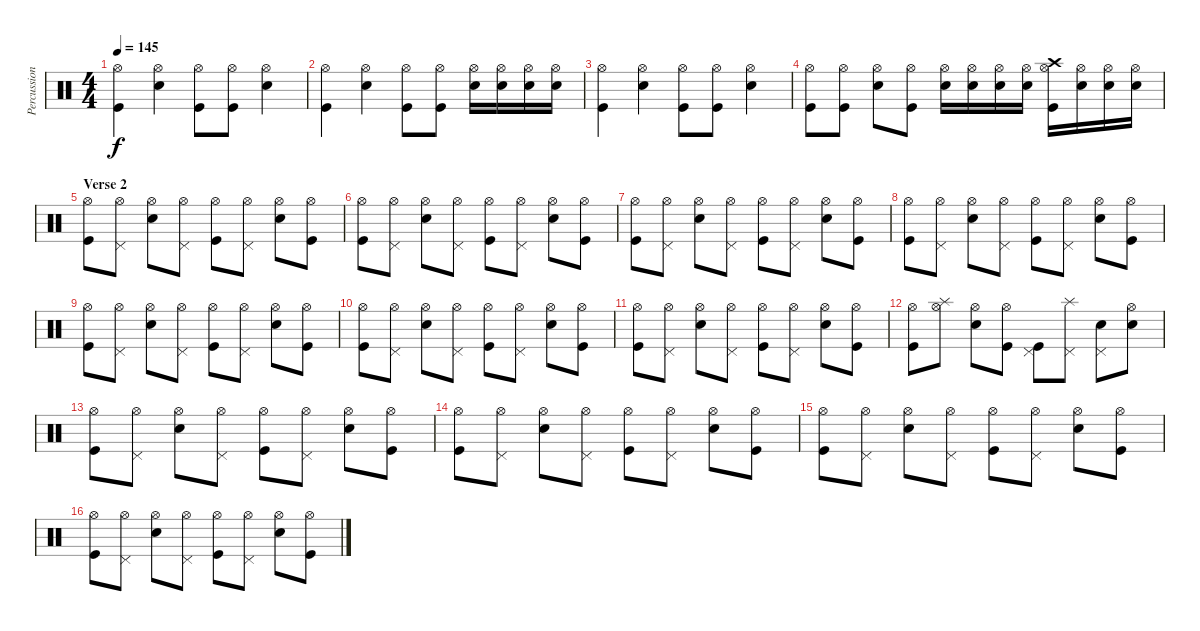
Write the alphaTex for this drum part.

\track ("Percussion" "Percussion") {instrument percussion}
\staff {score}
\articulation defaults
\ts (4 4)
\tempo 145
\clef neutral
\ks c
("Hi-Hat (open)" "Kick (hit)").4{dy f} ("Hi-Hat (open)" "Snare (hit) 2").4 ("Hi-Hat (open)" "Kick (hit)").8 ("Hi-Hat (open)" "Kick (hit)").8 ("Hi-Hat (open)" "Snare (hit) 2").4 |
("Hi-Hat (open)" "Kick (hit)").4 ("Hi-Hat (open)" "Snare (hit) 2").4 ("Hi-Hat (open)" "Kick (hit)").8 ("Hi-Hat (open)" "Kick (hit)").8 ("Hi-Hat (open)" "Snare (hit) 2").16 ("Hi-Hat (open)" "Snare (hit) 2").16 ("Hi-Hat (open)" "Snare (hit) 2").16 ("Hi-Hat (open)" "Snare (hit) 2").16 |
("Hi-Hat (open)" "Kick (hit)").4 ("Hi-Hat (open)" "Snare (hit) 2").4 ("Hi-Hat (open)" "Kick (hit)").8 ("Hi-Hat (open)" "Kick (hit)").8 ("Hi-Hat (open)" "Snare (hit) 2").4 |
("Hi-Hat (open)" "Kick (hit)").8 ("Hi-Hat (open)" "Kick (hit)").8 ("Hi-Hat (open)" "Snare (hit) 2").8 ("Hi-Hat (open)" "Kick (hit)").8 ("Hi-Hat (open)" "Snare (hit) 2").16 ("Hi-Hat (open)" "Snare (hit) 2").16 ("Hi-Hat (open)" "Snare (hit) 2").16 ("Hi-Hat (open)" "Snare (hit) 2").16 ("Hi-Hat (open)" "Crash high (hit)" "Kick (hit)").16 ("Hi-Hat (open)" "Snare (hit) 2").16 ("Hi-Hat (open)" "Snare (hit) 2").16 ("Hi-Hat (open)" "Snare (hit) 2").16 |
\section ("" "Verse 2")
("Hi-Hat (open)" "Kick (hit)").8 ("Hi-Hat (open)" "Pedal Hi-Hat (hit)").8 ("Hi-Hat (open)" "Snare (hit) 2").8 ("Hi-Hat (open)" "Pedal Hi-Hat (hit)").8 ("Hi-Hat (open)" "Kick (hit)").8 ("Hi-Hat (open)" "Pedal Hi-Hat (hit)").8 ("Hi-Hat (open)" "Snare (hit) 2").8 ("Hi-Hat (open)" "Kick (hit)").8 |
("Hi-Hat (open)" "Kick (hit)").8 ("Hi-Hat (open)" "Pedal Hi-Hat (hit)").8 ("Hi-Hat (open)" "Snare (hit) 2").8 ("Hi-Hat (open)" "Pedal Hi-Hat (hit)").8 ("Hi-Hat (open)" "Kick (hit)").8 ("Hi-Hat (open)" "Pedal Hi-Hat (hit)").8 ("Hi-Hat (open)" "Snare (hit) 2").8 ("Hi-Hat (open)" "Kick (hit)").8 |
("Hi-Hat (open)" "Kick (hit)").8 ("Hi-Hat (open)" "Pedal Hi-Hat (hit)").8 ("Hi-Hat (open)" "Snare (hit) 2").8 ("Hi-Hat (open)" "Pedal Hi-Hat (hit)").8 ("Hi-Hat (open)" "Kick (hit)").8 ("Hi-Hat (open)" "Pedal Hi-Hat (hit)").8 ("Hi-Hat (open)" "Snare (hit) 2").8 ("Hi-Hat (open)" "Kick (hit)").8 |
("Hi-Hat (open)" "Kick (hit)").8 ("Hi-Hat (open)" "Pedal Hi-Hat (hit)").8 ("Hi-Hat (open)" "Snare (hit) 2").8 ("Hi-Hat (open)" "Pedal Hi-Hat (hit)").8 ("Hi-Hat (open)" "Kick (hit)").8 ("Hi-Hat (open)" "Pedal Hi-Hat (hit)").8 ("Hi-Hat (open)" "Snare (hit) 2").8 ("Hi-Hat (open)" "Kick (hit)").8 |
("Hi-Hat (open)" "Kick (hit)").8 ("Hi-Hat (open)" "Pedal Hi-Hat (hit)").8 ("Hi-Hat (open)" "Snare (hit) 2").8 ("Hi-Hat (open)" "Pedal Hi-Hat (hit)").8 ("Hi-Hat (open)" "Kick (hit)").8 ("Hi-Hat (open)" "Pedal Hi-Hat (hit)").8 ("Hi-Hat (open)" "Snare (hit) 2").8 ("Hi-Hat (open)" "Kick (hit)").8 |
("Hi-Hat (open)" "Kick (hit)").8 ("Hi-Hat (open)" "Pedal Hi-Hat (hit)").8 ("Hi-Hat (open)" "Snare (hit) 2").8 ("Hi-Hat (open)" "Pedal Hi-Hat (hit)").8 ("Hi-Hat (open)" "Kick (hit)").8 ("Hi-Hat (open)" "Pedal Hi-Hat (hit)").8 ("Hi-Hat (open)" "Snare (hit) 2").8 ("Hi-Hat (open)" "Kick (hit)").8 |
("Hi-Hat (open)" "Kick (hit)").8 ("Hi-Hat (open)" "Pedal Hi-Hat (hit)").8 ("Hi-Hat (open)" "Snare (hit) 2").8 ("Hi-Hat (open)" "Pedal Hi-Hat (hit)").8 ("Hi-Hat (open)" "Kick (hit)").8 ("Hi-Hat (open)" "Pedal Hi-Hat (hit)").8 ("Hi-Hat (open)" "Snare (hit) 2").8 ("Hi-Hat (open)" "Kick (hit)").8 |
("Hi-Hat (open)" "Kick (hit)").8 ("Hi-Hat (open)" "Splash (hit)").8 ("Hi-Hat (open)" "Snare (hit) 2").8 ("Hi-Hat (open)" "Kick (hit)").8 ("Pedal Hi-Hat (hit)" "Kick (hit)").8 ("Pedal Hi-Hat (hit)" "Splash (hit)").8 ("Pedal Hi-Hat (hit)" "Snare (hit) 2").8 ("Hi-Hat (open)" "Snare (hit) 2").8 |
("Hi-Hat (open)" "Kick (hit)").8 ("Hi-Hat (open)" "Pedal Hi-Hat (hit)").8 ("Hi-Hat (open)" "Snare (hit) 2").8 ("Hi-Hat (open)" "Pedal Hi-Hat (hit)").8 ("Hi-Hat (open)" "Kick (hit)").8 ("Hi-Hat (open)" "Pedal Hi-Hat (hit)").8 ("Hi-Hat (open)" "Snare (hit) 2").8 ("Hi-Hat (open)" "Kick (hit)").8 |
("Hi-Hat (open)" "Kick (hit)").8 ("Hi-Hat (open)" "Pedal Hi-Hat (hit)").8 ("Hi-Hat (open)" "Snare (hit) 2").8 ("Hi-Hat (open)" "Pedal Hi-Hat (hit)").8 ("Hi-Hat (open)" "Kick (hit)").8 ("Hi-Hat (open)" "Pedal Hi-Hat (hit)").8 ("Hi-Hat (open)" "Snare (hit) 2").8 ("Hi-Hat (open)" "Kick (hit)").8 |
("Hi-Hat (open)" "Kick (hit)").8 ("Hi-Hat (open)" "Pedal Hi-Hat (hit)").8 ("Hi-Hat (open)" "Snare (hit) 2").8 ("Hi-Hat (open)" "Pedal Hi-Hat (hit)").8 ("Hi-Hat (open)" "Kick (hit)").8 ("Hi-Hat (open)" "Pedal Hi-Hat (hit)").8 ("Hi-Hat (open)" "Snare (hit) 2").8 ("Hi-Hat (open)" "Kick (hit)").8 |
("Hi-Hat (open)" "Kick (hit)").8 ("Hi-Hat (open)" "Pedal Hi-Hat (hit)").8 ("Hi-Hat (open)" "Snare (hit) 2").8 ("Hi-Hat (open)" "Pedal Hi-Hat (hit)").8 ("Hi-Hat (open)" "Kick (hit)").8 ("Hi-Hat (open)" "Pedal Hi-Hat (hit)").8 ("Hi-Hat (open)" "Snare (hit) 2").8 ("Hi-Hat (open)" "Kick (hit)").8
